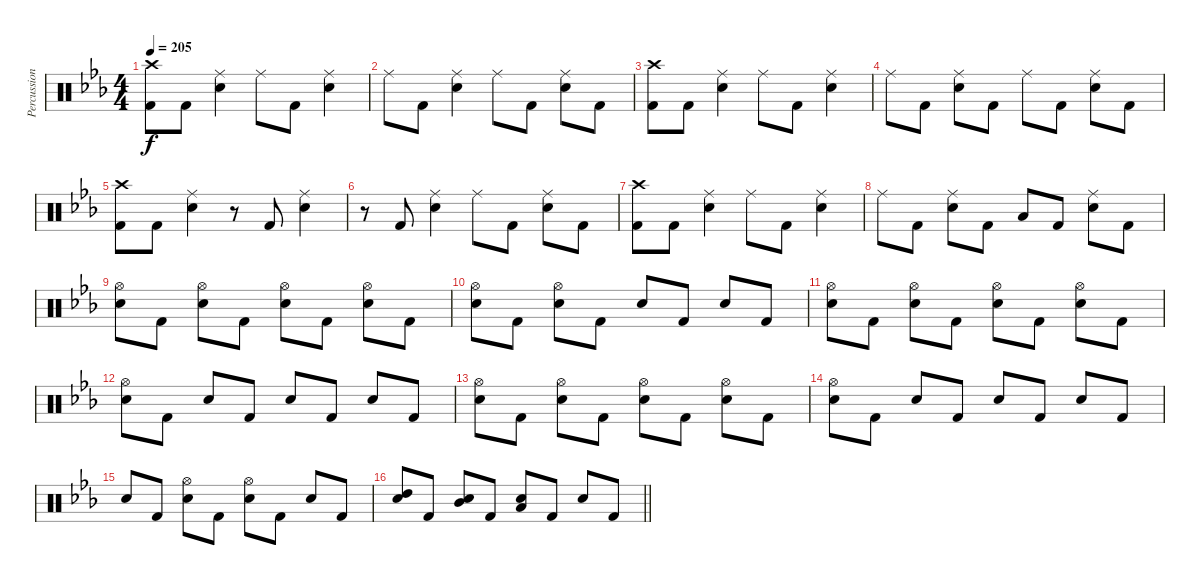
\track ("Percussion" "Percussion") {instrument percussion}
\staff {score}
\articulation defaults
\ts (4 4)
\tempo 205
\clef neutral
\ks eb
("Crash high (hit)" "Kick (hit) 2").8{dy f} "Kick (hit) 2".8 ("Ride (middle)" "Snare (hit) 2").4 "Ride (middle)".8 "Kick (hit) 2".8 ("Ride (middle)" "Snare (hit) 2").4 |
"Ride (middle)".8 "Kick (hit) 2".8 ("Ride (middle)" "Snare (hit) 2").4 "Ride (middle)".8 "Kick (hit) 2".8 ("Ride (middle)" "Snare (hit) 2").8 "Kick (hit) 2".8 |
("Crash high (hit)" "Kick (hit) 2").8 "Kick (hit) 2".8 ("Ride (middle)" "Snare (hit) 2").4 "Ride (middle)".8 "Kick (hit) 2".8 ("Ride (middle)" "Snare (hit) 2").4 |
"Ride (middle)".8 "Kick (hit) 2".8 ("Ride (middle)" "Snare (hit) 2").8 "Kick (hit) 2".8 "Ride (middle)".8 "Kick (hit) 2".8 ("Ride (middle)" "Snare (hit) 2").8 "Kick (hit) 2".8 |
("Crash high (hit)" "Kick (hit) 2").8 "Kick (hit) 2".8 ("Ride (middle)" "Snare (hit) 2").4 r.8 "Kick (hit) 2".8 ("Ride (middle)" "Snare (hit) 2").4 |
r.8 "Kick (hit) 2".8 ("Ride (middle)" "Snare (hit) 2").4 "Ride (middle)".8 "Kick (hit) 2".8 ("Ride (middle)" "Snare (hit) 2").8 "Kick (hit) 2".8 |
("Crash high (hit)" "Kick (hit) 2").8 "Kick (hit) 2".8 ("Ride (middle)" "Snare (hit) 2").4 "Ride (middle)".8 "Kick (hit) 2".8 ("Ride (middle)" "Snare (hit) 2").4 |
"Ride (middle)".8 "Kick (hit) 2".8 ("Ride (middle)" "Snare (hit) 2").8 "Kick (hit) 2".8 "Low Tom (hit)".8 "Kick (hit) 2".8 ("Ride (middle)" "Snare (hit) 2").8 "Kick (hit) 2".8 |
("Hi-Hat (open)" "Snare (hit) 2").8 "Kick (hit) 2".8 ("Hi-Hat (open)" "Snare (hit) 2").8 "Kick (hit) 2".8 ("Hi-Hat (open)" "Snare (hit) 2").8 "Kick (hit) 2".8 ("Hi-Hat (open)" "Snare (hit) 2").8 "Kick (hit) 2".8 |
("Hi-Hat (open)" "Snare (hit) 2").8 "Kick (hit) 2".8 ("Hi-Hat (open)" "Snare (hit) 2").8 "Kick (hit) 2".8 "Snare (hit) 2".8 "Kick (hit) 2".8 "Snare (hit) 2".8 "Kick (hit) 2".8 |
("Hi-Hat (open)" "Snare (hit) 2").8 "Kick (hit) 2".8 ("Hi-Hat (open)" "Snare (hit) 2").8 "Kick (hit) 2".8 ("Hi-Hat (open)" "Snare (hit) 2").8 "Kick (hit) 2".8 ("Hi-Hat (open)" "Snare (hit) 2").8 "Kick (hit) 2".8 |
("Hi-Hat (open)" "Snare (hit) 2").8 "Kick (hit) 2".8 "Snare (hit) 2".8 "Kick (hit) 2".8 "Snare (hit) 2".8 "Kick (hit) 2".8 "Snare (hit) 2".8 "Kick (hit) 2".8 |
("Hi-Hat (open)" "Snare (hit) 2").8 "Kick (hit) 2".8 ("Hi-Hat (open)" "Snare (hit) 2").8 "Kick (hit) 2".8 ("Hi-Hat (open)" "Snare (hit) 2").8 "Kick (hit) 2".8 ("Hi-Hat (open)" "Snare (hit) 2").8 "Kick (hit) 2".8 |
("Hi-Hat (open)" "Snare (hit) 2").8 "Kick (hit) 2".8 "Snare (hit) 2".8 "Kick (hit) 2".8 "Snare (hit) 2".8 "Kick (hit) 2".8 "Snare (hit) 2".8 "Kick (hit) 2".8 |
"Snare (hit) 2".8 "Kick (hit) 2".8 ("Hi-Hat (open)" "Snare (hit) 2").8 "Kick (hit) 2".8 ("Hi-Hat (open)" "Snare (hit) 2").8 "Kick (hit) 2".8 "Snare (hit) 2".8 "Kick (hit) 2".8 |
\barLineRight lightlight
("High Tom (hit)" "Snare (hit) 2").8 "Kick (hit) 2".8 ("Mid Tom (hit)" "Snare (hit) 2").8 "Kick (hit) 2".8 ("Low Tom (hit)" "Snare (hit) 2").8 "Kick (hit) 2".8 "Snare (hit) 2".8 "Kick (hit) 2".8
